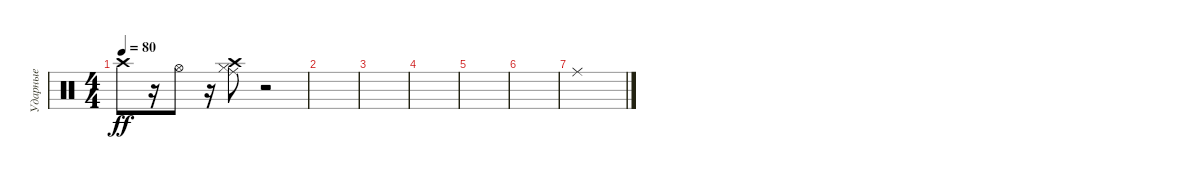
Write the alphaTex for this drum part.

\track ("Ударные" "Ударные") {instrument percussion}
\staff {score}
\articulation defaults
\ts (4 4)
\tempo 80
\clef neutral
\ks c "Crash high (hit)".8{dy ff}
r.16 "Hi-Hat (open)".8 r.16 ("Ride (middle)" "Hi-Hat (closed)" "Crash high (hit)").8 r.2 |
|
|
|
|
|
"Ride (middle)".1
